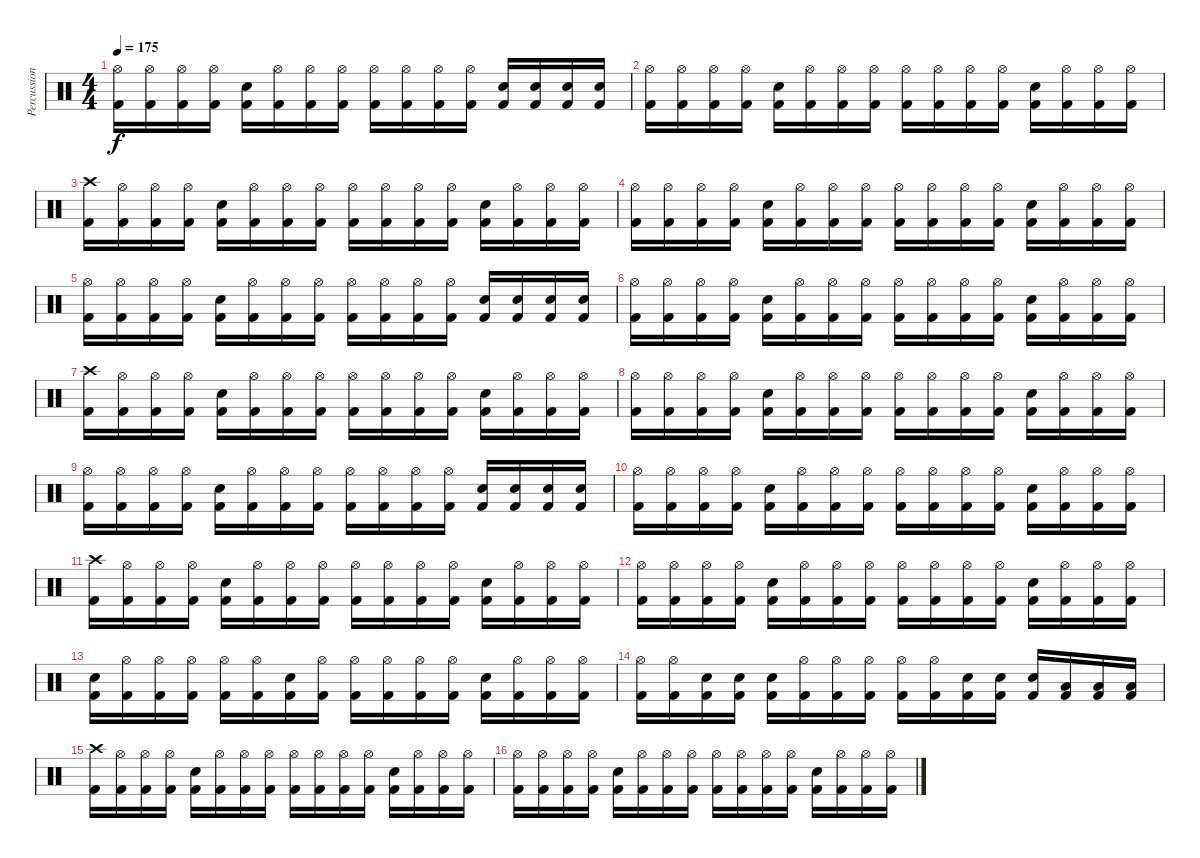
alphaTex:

\track ("Percussion" "Percussion") {instrument percussion}
\staff {score}
\articulation defaults
\ts (4 4)
\tempo 175
\clef neutral
\ks c
("Kick (hit) 2" "Hi-Hat (open)").16{dy f} ("Kick (hit) 2" "Hi-Hat (open)").16 ("Kick (hit) 2" "Hi-Hat (open)").16 ("Kick (hit) 2" "Hi-Hat (open)").16 ("Kick (hit) 2" "Snare (hit) 2").16 ("Kick (hit) 2" "Hi-Hat (open)").16 ("Kick (hit) 2" "Hi-Hat (open)").16 ("Kick (hit) 2" "Hi-Hat (open)").16 ("Kick (hit) 2" "Hi-Hat (open)").16 ("Kick (hit) 2" "Hi-Hat (open)").16 ("Kick (hit) 2" "Hi-Hat (open)").16 ("Kick (hit) 2" "Hi-Hat (open)").16 ("Kick (hit) 2" "Snare (hit) 2").16 ("Kick (hit) 2" "Snare (hit) 2").16 ("Kick (hit) 2" "Snare (hit) 2").16 ("Kick (hit) 2" "Snare (hit) 2").16 |
("Kick (hit) 2" "Hi-Hat (open)").16 ("Kick (hit) 2" "Hi-Hat (open)").16 ("Kick (hit) 2" "Hi-Hat (open)").16 ("Kick (hit) 2" "Hi-Hat (open)").16 ("Kick (hit) 2" "Snare (hit) 2").16 ("Kick (hit) 2" "Hi-Hat (open)").16 ("Kick (hit) 2" "Hi-Hat (open)").16 ("Kick (hit) 2" "Hi-Hat (open)").16 ("Kick (hit) 2" "Hi-Hat (open)").16 ("Kick (hit) 2" "Hi-Hat (open)").16 ("Kick (hit) 2" "Hi-Hat (open)").16 ("Kick (hit) 2" "Hi-Hat (open)").16 ("Kick (hit) 2" "Snare (hit) 2").16 ("Kick (hit) 2" "Hi-Hat (open)").16 ("Kick (hit) 2" "Hi-Hat (open)").16 ("Kick (hit) 2" "Hi-Hat (open)").16 |
("Kick (hit) 2" "Crash high (hit)").16 ("Kick (hit) 2" "Hi-Hat (open)").16 ("Kick (hit) 2" "Hi-Hat (open)").16 ("Kick (hit) 2" "Hi-Hat (open)").16 ("Kick (hit) 2" "Snare (hit) 2").16 ("Kick (hit) 2" "Hi-Hat (open)").16 ("Kick (hit) 2" "Hi-Hat (open)").16 ("Kick (hit) 2" "Hi-Hat (open)").16 ("Kick (hit) 2" "Hi-Hat (open)").16 ("Kick (hit) 2" "Hi-Hat (open)").16 ("Kick (hit) 2" "Hi-Hat (open)").16 ("Kick (hit) 2" "Hi-Hat (open)").16 ("Kick (hit) 2" "Snare (hit) 2").16 ("Kick (hit) 2" "Hi-Hat (open)").16 ("Kick (hit) 2" "Hi-Hat (open)").16 ("Kick (hit) 2" "Hi-Hat (open)").16 |
("Kick (hit) 2" "Hi-Hat (open)").16 ("Kick (hit) 2" "Hi-Hat (open)").16 ("Kick (hit) 2" "Hi-Hat (open)").16 ("Kick (hit) 2" "Hi-Hat (open)").16 ("Kick (hit) 2" "Snare (hit) 2").16 ("Kick (hit) 2" "Hi-Hat (open)").16 ("Kick (hit) 2" "Hi-Hat (open)").16 ("Kick (hit) 2" "Hi-Hat (open)").16 ("Kick (hit) 2" "Hi-Hat (open)").16 ("Kick (hit) 2" "Hi-Hat (open)").16 ("Kick (hit) 2" "Hi-Hat (open)").16 ("Kick (hit) 2" "Hi-Hat (open)").16 ("Kick (hit) 2" "Snare (hit) 2").16 ("Kick (hit) 2" "Hi-Hat (open)").16 ("Kick (hit) 2" "Hi-Hat (open)").16 ("Kick (hit) 2" "Hi-Hat (open)").16 |
("Kick (hit) 2" "Hi-Hat (open)").16 ("Kick (hit) 2" "Hi-Hat (open)").16 ("Kick (hit) 2" "Hi-Hat (open)").16 ("Kick (hit) 2" "Hi-Hat (open)").16 ("Kick (hit) 2" "Snare (hit) 2").16 ("Kick (hit) 2" "Hi-Hat (open)").16 ("Kick (hit) 2" "Hi-Hat (open)").16 ("Kick (hit) 2" "Hi-Hat (open)").16 ("Kick (hit) 2" "Hi-Hat (open)").16 ("Kick (hit) 2" "Hi-Hat (open)").16 ("Kick (hit) 2" "Hi-Hat (open)").16 ("Kick (hit) 2" "Hi-Hat (open)").16 ("Kick (hit) 2" "Snare (hit) 2").16 ("Kick (hit) 2" "Snare (hit) 2").16 ("Kick (hit) 2" "Snare (hit) 2").16 ("Kick (hit) 2" "Snare (hit) 2").16 |
("Kick (hit) 2" "Hi-Hat (open)").16 ("Kick (hit) 2" "Hi-Hat (open)").16 ("Kick (hit) 2" "Hi-Hat (open)").16 ("Kick (hit) 2" "Hi-Hat (open)").16 ("Kick (hit) 2" "Snare (hit) 2").16 ("Kick (hit) 2" "Hi-Hat (open)").16 ("Kick (hit) 2" "Hi-Hat (open)").16 ("Kick (hit) 2" "Hi-Hat (open)").16 ("Kick (hit) 2" "Hi-Hat (open)").16 ("Kick (hit) 2" "Hi-Hat (open)").16 ("Kick (hit) 2" "Hi-Hat (open)").16 ("Kick (hit) 2" "Hi-Hat (open)").16 ("Kick (hit) 2" "Snare (hit) 2").16 ("Kick (hit) 2" "Hi-Hat (open)").16 ("Kick (hit) 2" "Hi-Hat (open)").16 ("Kick (hit) 2" "Hi-Hat (open)").16 |
("Kick (hit) 2" "Crash high (hit)").16 ("Kick (hit) 2" "Hi-Hat (open)").16 ("Kick (hit) 2" "Hi-Hat (open)").16 ("Kick (hit) 2" "Hi-Hat (open)").16 ("Kick (hit) 2" "Snare (hit) 2").16 ("Kick (hit) 2" "Hi-Hat (open)").16 ("Kick (hit) 2" "Hi-Hat (open)").16 ("Kick (hit) 2" "Hi-Hat (open)").16 ("Kick (hit) 2" "Hi-Hat (open)").16 ("Kick (hit) 2" "Hi-Hat (open)").16 ("Kick (hit) 2" "Hi-Hat (open)").16 ("Kick (hit) 2" "Hi-Hat (open)").16 ("Kick (hit) 2" "Snare (hit) 2").16 ("Kick (hit) 2" "Hi-Hat (open)").16 ("Kick (hit) 2" "Hi-Hat (open)").16 ("Kick (hit) 2" "Hi-Hat (open)").16 |
("Kick (hit) 2" "Hi-Hat (open)").16 ("Kick (hit) 2" "Hi-Hat (open)").16 ("Kick (hit) 2" "Hi-Hat (open)").16 ("Kick (hit) 2" "Hi-Hat (open)").16 ("Kick (hit) 2" "Snare (hit) 2").16 ("Kick (hit) 2" "Hi-Hat (open)").16 ("Kick (hit) 2" "Hi-Hat (open)").16 ("Kick (hit) 2" "Hi-Hat (open)").16 ("Kick (hit) 2" "Hi-Hat (open)").16 ("Kick (hit) 2" "Hi-Hat (open)").16 ("Kick (hit) 2" "Hi-Hat (open)").16 ("Kick (hit) 2" "Hi-Hat (open)").16 ("Kick (hit) 2" "Snare (hit) 2").16 ("Kick (hit) 2" "Hi-Hat (open)").16 ("Kick (hit) 2" "Hi-Hat (open)").16 ("Kick (hit) 2" "Hi-Hat (open)").16 |
("Kick (hit) 2" "Hi-Hat (open)").16 ("Kick (hit) 2" "Hi-Hat (open)").16 ("Kick (hit) 2" "Hi-Hat (open)").16 ("Kick (hit) 2" "Hi-Hat (open)").16 ("Kick (hit) 2" "Snare (hit) 2").16 ("Kick (hit) 2" "Hi-Hat (open)").16 ("Kick (hit) 2" "Hi-Hat (open)").16 ("Kick (hit) 2" "Hi-Hat (open)").16 ("Kick (hit) 2" "Hi-Hat (open)").16 ("Kick (hit) 2" "Hi-Hat (open)").16 ("Kick (hit) 2" "Hi-Hat (open)").16 ("Kick (hit) 2" "Hi-Hat (open)").16 ("Kick (hit) 2" "Snare (hit) 2").16 ("Kick (hit) 2" "Snare (hit) 2").16 ("Kick (hit) 2" "Snare (hit) 2").16 ("Kick (hit) 2" "Snare (hit) 2").16 |
("Kick (hit) 2" "Hi-Hat (open)").16 ("Kick (hit) 2" "Hi-Hat (open)").16 ("Kick (hit) 2" "Hi-Hat (open)").16 ("Kick (hit) 2" "Hi-Hat (open)").16 ("Kick (hit) 2" "Snare (hit) 2").16 ("Kick (hit) 2" "Hi-Hat (open)").16 ("Kick (hit) 2" "Hi-Hat (open)").16 ("Kick (hit) 2" "Hi-Hat (open)").16 ("Kick (hit) 2" "Hi-Hat (open)").16 ("Kick (hit) 2" "Hi-Hat (open)").16 ("Kick (hit) 2" "Hi-Hat (open)").16 ("Kick (hit) 2" "Hi-Hat (open)").16 ("Kick (hit) 2" "Snare (hit) 2").16 ("Kick (hit) 2" "Hi-Hat (open)").16 ("Kick (hit) 2" "Hi-Hat (open)").16 ("Kick (hit) 2" "Hi-Hat (open)").16 |
("Kick (hit) 2" "Crash high (hit)").16 ("Kick (hit) 2" "Hi-Hat (open)").16 ("Kick (hit) 2" "Hi-Hat (open)").16 ("Kick (hit) 2" "Hi-Hat (open)").16 ("Kick (hit) 2" "Snare (hit) 2").16 ("Kick (hit) 2" "Hi-Hat (open)").16 ("Kick (hit) 2" "Hi-Hat (open)").16 ("Kick (hit) 2" "Hi-Hat (open)").16 ("Kick (hit) 2" "Hi-Hat (open)").16 ("Kick (hit) 2" "Hi-Hat (open)").16 ("Kick (hit) 2" "Hi-Hat (open)").16 ("Kick (hit) 2" "Hi-Hat (open)").16 ("Kick (hit) 2" "Snare (hit) 2").16 ("Kick (hit) 2" "Hi-Hat (open)").16 ("Kick (hit) 2" "Hi-Hat (open)").16 ("Kick (hit) 2" "Hi-Hat (open)").16 |
("Kick (hit) 2" "Hi-Hat (open)").16 ("Kick (hit) 2" "Hi-Hat (open)").16 ("Kick (hit) 2" "Hi-Hat (open)").16 ("Kick (hit) 2" "Hi-Hat (open)").16 ("Kick (hit) 2" "Snare (hit) 2").16 ("Kick (hit) 2" "Hi-Hat (open)").16 ("Kick (hit) 2" "Hi-Hat (open)").16 ("Kick (hit) 2" "Hi-Hat (open)").16 ("Kick (hit) 2" "Hi-Hat (open)").16 ("Kick (hit) 2" "Hi-Hat (open)").16 ("Kick (hit) 2" "Hi-Hat (open)").16 ("Kick (hit) 2" "Hi-Hat (open)").16 ("Kick (hit) 2" "Snare (hit) 2").16 ("Kick (hit) 2" "Hi-Hat (open)").16 ("Kick (hit) 2" "Hi-Hat (open)").16 ("Kick (hit) 2" "Hi-Hat (open)").16 |
("Kick (hit) 2" "Snare (hit) 2").16 ("Kick (hit) 2" "Hi-Hat (open)").16 ("Kick (hit) 2" "Hi-Hat (open)").16 ("Kick (hit) 2" "Hi-Hat (open)").16 ("Kick (hit) 2" "Hi-Hat (open)").16 ("Kick (hit) 2" "Hi-Hat (open)").16 ("Kick (hit) 2" "Snare (hit) 2").16 ("Kick (hit) 2" "Hi-Hat (open)").16 ("Kick (hit) 2" "Hi-Hat (open)").16 ("Kick (hit) 2" "Hi-Hat (open)").16 ("Kick (hit) 2" "Hi-Hat (open)").16 ("Kick (hit) 2" "Hi-Hat (open)").16 ("Kick (hit) 2" "Snare (hit) 2").16 ("Kick (hit) 2" "Hi-Hat (open)").16 ("Kick (hit) 2" "Hi-Hat (open)").16 ("Kick (hit) 2" "Hi-Hat (open)").16 |
("Kick (hit) 2" "Hi-Hat (open)").16 ("Kick (hit) 2" "Hi-Hat (open)").16 ("Kick (hit) 2" "Snare (hit) 2").16 ("Kick (hit) 2" "Snare (hit) 2").16 ("Kick (hit) 2" "Snare (hit) 2").16 ("Kick (hit) 2" "Hi-Hat (open)").16 ("Kick (hit) 2" "Hi-Hat (open)").16 ("Kick (hit) 2" "Hi-Hat (open)").16 ("Kick (hit) 2" "Hi-Hat (open)").16 ("Kick (hit) 2" "Hi-Hat (open)").16 ("Kick (hit) 2" "Snare (hit) 2").16 ("Kick (hit) 2" "Snare (hit) 2").16 ("Kick (hit) 2" "Snare (hit) 2").16 ("Kick (hit) 2" "Low Tom (hit)").16 ("Kick (hit) 2" "Low Tom (hit)").16 ("Kick (hit) 2" "Low Tom (hit)").16 |
("Kick (hit) 2" "Crash high (hit)").16 ("Kick (hit) 2" "Hi-Hat (open)").16 ("Kick (hit) 2" "Hi-Hat (open)").16 ("Kick (hit) 2" "Hi-Hat (open)").16 ("Kick (hit) 2" "Snare (hit) 2").16 ("Kick (hit) 2" "Hi-Hat (open)").16 ("Kick (hit) 2" "Hi-Hat (open)").16 ("Kick (hit) 2" "Hi-Hat (open)").16 ("Kick (hit) 2" "Hi-Hat (open)").16 ("Kick (hit) 2" "Hi-Hat (open)").16 ("Kick (hit) 2" "Hi-Hat (open)").16 ("Kick (hit) 2" "Hi-Hat (open)").16 ("Kick (hit) 2" "Snare (hit) 2").16 ("Kick (hit) 2" "Hi-Hat (open)").16 ("Kick (hit) 2" "Hi-Hat (open)").16 ("Kick (hit) 2" "Hi-Hat (open)").16 |
("Kick (hit) 2" "Hi-Hat (open)").16 ("Kick (hit) 2" "Hi-Hat (open)").16 ("Kick (hit) 2" "Hi-Hat (open)").16 ("Kick (hit) 2" "Hi-Hat (open)").16 ("Kick (hit) 2" "Snare (hit) 2").16 ("Kick (hit) 2" "Hi-Hat (open)").16 ("Kick (hit) 2" "Hi-Hat (open)").16 ("Kick (hit) 2" "Hi-Hat (open)").16 ("Kick (hit) 2" "Hi-Hat (open)").16 ("Kick (hit) 2" "Hi-Hat (open)").16 ("Kick (hit) 2" "Hi-Hat (open)").16 ("Kick (hit) 2" "Hi-Hat (open)").16 ("Kick (hit) 2" "Snare (hit) 2").16 ("Kick (hit) 2" "Hi-Hat (open)").16 ("Kick (hit) 2" "Hi-Hat (open)").16 ("Kick (hit) 2" "Hi-Hat (open)").16
